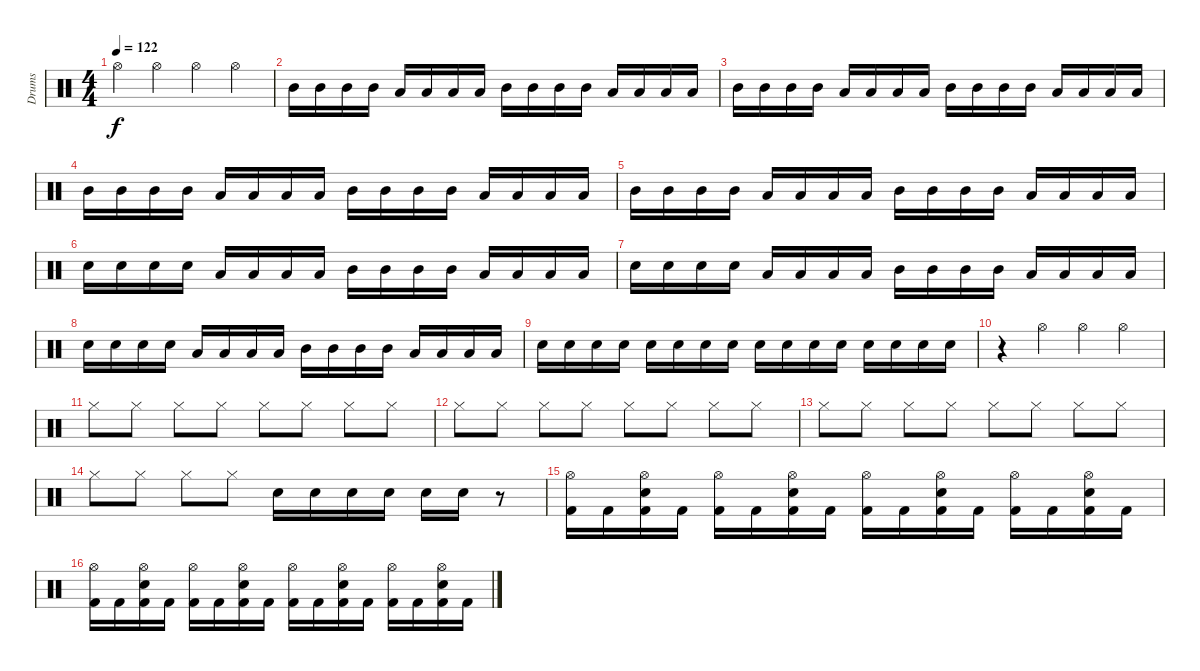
\track ("Drums" "Drums") {instrument percussion}
\staff {score}
\articulation defaults
\ts (4 4)
\tempo 122
\clef neutral
\ks c "Hi-Hat (open)".4{dy f} "Hi-Hat (open)".4 "Hi-Hat (open)".4 "Hi-Hat (open)".4
|
"Mid Tom (hit)".16 "Mid Tom (hit)".16 "Mid Tom (hit)".16 "Mid Tom (hit)".16 "Low Tom (hit)".16 "Low Tom (hit)".16 "Low Tom (hit)".16 "Low Tom (hit)".16 "Mid Tom (hit)".16 "Mid Tom (hit)".16 "Mid Tom (hit)".16 "Mid Tom (hit)".16 "Low Tom (hit)".16 "Low Tom (hit)".16 "Low Tom (hit)".16 "Low Tom (hit)".16 |
"Mid Tom (hit)".16 "Mid Tom (hit)".16 "Mid Tom (hit)".16 "Mid Tom (hit)".16 "Low Tom (hit)".16 "Low Tom (hit)".16 "Low Tom (hit)".16 "Low Tom (hit)".16 "Mid Tom (hit)".16 "Mid Tom (hit)".16 "Mid Tom (hit)".16 "Mid Tom (hit)".16 "Low Tom (hit)".16 "Low Tom (hit)".16 "Low Tom (hit)".16 "Low Tom (hit)".16 |
"Mid Tom (hit)".16 "Mid Tom (hit)".16 "Mid Tom (hit)".16 "Mid Tom (hit)".16 "Low Tom (hit)".16 "Low Tom (hit)".16 "Low Tom (hit)".16 "Low Tom (hit)".16 "Mid Tom (hit)".16 "Mid Tom (hit)".16 "Mid Tom (hit)".16 "Mid Tom (hit)".16 "Low Tom (hit)".16 "Low Tom (hit)".16 "Low Tom (hit)".16 "Low Tom (hit)".16 |
"Mid Tom (hit)".16 "Mid Tom (hit)".16 "Mid Tom (hit)".16 "Mid Tom (hit)".16 "Low Tom (hit)".16 "Low Tom (hit)".16 "Low Tom (hit)".16 "Low Tom (hit)".16 "Mid Tom (hit)".16 "Mid Tom (hit)".16 "Mid Tom (hit)".16 "Mid Tom (hit)".16 "Low Tom (hit)".16 "Low Tom (hit)".16 "Low Tom (hit)".16 "Low Tom (hit)".16 |
"Snare (hit) 2".16 "Snare (hit) 2".16 "Snare (hit) 2".16 "Snare (hit) 2".16 "Low Tom (hit)".16 "Low Tom (hit)".16 "Low Tom (hit)".16 "Low Tom (hit)".16 "Mid Tom (hit)".16 "Mid Tom (hit)".16 "Mid Tom (hit)".16 "Mid Tom (hit)".16 "Low Tom (hit)".16 "Low Tom (hit)".16 "Low Tom (hit)".16 "Low Tom (hit)".16 |
"Snare (hit) 2".16 "Snare (hit) 2".16 "Snare (hit) 2".16 "Snare (hit) 2".16 "Low Tom (hit)".16 "Low Tom (hit)".16 "Low Tom (hit)".16 "Low Tom (hit)".16 "Mid Tom (hit)".16 "Mid Tom (hit)".16 "Mid Tom (hit)".16 "Mid Tom (hit)".16 "Low Tom (hit)".16 "Low Tom (hit)".16 "Low Tom (hit)".16 "Low Tom (hit)".16 |
"Snare (hit) 2".16 "Snare (hit) 2".16 "Snare (hit) 2".16 "Snare (hit) 2".16 "Low Tom (hit)".16 "Low Tom (hit)".16 "Low Tom (hit)".16 "Low Tom (hit)".16 "Mid Tom (hit)".16 "Mid Tom (hit)".16 "Mid Tom (hit)".16 "Mid Tom (hit)".16 "Low Tom (hit)".16 "Low Tom (hit)".16 "Low Tom (hit)".16 "Low Tom (hit)".16 |
"Snare (hit) 2".16 "Snare (hit) 2".16 "Snare (hit) 2".16 "Snare (hit) 2".16 "Snare (hit) 2".16 "Snare (hit) 2".16 "Snare (hit) 2".16 "Snare (hit) 2".16 "Snare (hit) 2".16 "Snare (hit) 2".16 "Snare (hit) 2".16 "Snare (hit) 2".16 "Snare (hit) 2".16 "Snare (hit) 2".16 "Snare (hit) 2".16 "Snare (hit) 2".16 |
r.4 "Hi-Hat (open)".4 "Hi-Hat (open)".4 "Hi-Hat (open)".4 |
"Hi-Hat (closed)".8 "Hi-Hat (closed)".8 "Hi-Hat (closed)".8 "Hi-Hat (closed)".8 "Hi-Hat (closed)".8 "Hi-Hat (closed)".8 "Hi-Hat (closed)".8 "Hi-Hat (closed)".8 |
"Hi-Hat (closed)".8 "Hi-Hat (closed)".8 "Hi-Hat (closed)".8 "Hi-Hat (closed)".8 "Hi-Hat (closed)".8 "Hi-Hat (closed)".8 "Hi-Hat (closed)".8 "Hi-Hat (closed)".8 |
"Hi-Hat (closed)".8 "Hi-Hat (closed)".8 "Hi-Hat (closed)".8 "Hi-Hat (closed)".8 "Hi-Hat (closed)".8 "Hi-Hat (closed)".8 "Hi-Hat (closed)".8 "Hi-Hat (closed)".8 |
"Hi-Hat (closed)".8 "Hi-Hat (closed)".8 "Hi-Hat (closed)".8 "Hi-Hat (closed)".8 "Snare (hit) 2".16 "Snare (hit) 2".16 "Snare (hit) 2".16 "Snare (hit) 2".16 "Snare (hit) 2".16 "Snare (hit) 2".16 r.8 |
("Hi-Hat (open)" "Kick (hit) 2").16 "Kick (hit) 2".16 ("Hi-Hat (open)" "Snare (hit) 2" "Kick (hit) 2").16 "Kick (hit) 2".16 ("Hi-Hat (open)" "Kick (hit) 2").16 "Kick (hit) 2".16 ("Hi-Hat (open)" "Snare (hit) 2" "Kick (hit) 2").16 "Kick (hit) 2".16 ("Hi-Hat (open)" "Kick (hit) 2").16 "Kick (hit) 2".16 ("Hi-Hat (open)" "Snare (hit) 2" "Kick (hit) 2").16 "Kick (hit) 2".16 ("Hi-Hat (open)" "Kick (hit) 2").16 "Kick (hit) 2".16 ("Hi-Hat (open)" "Snare (hit) 2" "Kick (hit) 2").16 "Kick (hit) 2".16 |
("Hi-Hat (open)" "Kick (hit) 2").16 "Kick (hit) 2".16 ("Hi-Hat (open)" "Snare (hit) 2" "Kick (hit) 2").16 "Kick (hit) 2".16 ("Hi-Hat (open)" "Kick (hit) 2").16 "Kick (hit) 2".16 ("Hi-Hat (open)" "Snare (hit) 2" "Kick (hit) 2").16 "Kick (hit) 2".16 ("Hi-Hat (open)" "Kick (hit) 2").16 "Kick (hit) 2".16 ("Hi-Hat (open)" "Snare (hit) 2" "Kick (hit) 2").16 "Kick (hit) 2".16 ("Hi-Hat (open)" "Kick (hit) 2").16 "Kick (hit) 2".16 ("Hi-Hat (open)" "Snare (hit) 2" "Kick (hit) 2").16 "Kick (hit) 2".16
